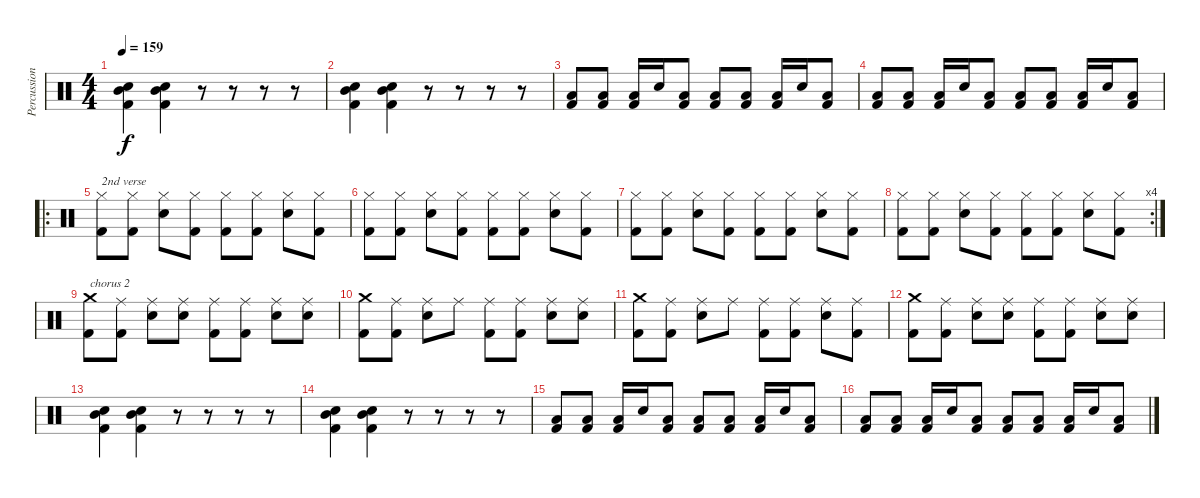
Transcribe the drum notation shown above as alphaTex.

\track ("Percussion" "Percussion") {instrument percussion}
\staff {score}
\articulation defaults
\ts (4 4)
\tempo 159
\clef neutral
\ks c
("Mid Tom (hit)" "Kick (hit) 2" "Electric Snare (hit)").4{dy f} ("Mid Tom (hit)" "Kick (hit) 2" "Electric Snare (hit)").4 r.8 r.8 r.8 r.8 |
("Mid Tom (hit)" "Kick (hit) 2" "Electric Snare (hit)").4 ("Mid Tom (hit)" "Kick (hit) 2" "Electric Snare (hit)").4 r.8 r.8 r.8 r.8 |
("Kick (hit) 2" "Low Tom (hit)").8 ("Kick (hit) 2" "Low Tom (hit)").8 ("Kick (hit) 2" "Low Tom (hit)").16 "Electric Snare (hit)".16 ("Kick (hit) 2" "Low Tom (hit)").8 ("Kick (hit) 2" "Low Tom (hit)").8 ("Kick (hit) 2" "Low Tom (hit)").8 ("Kick (hit) 2" "Low Tom (hit)").16 "Electric Snare (hit)".16 ("Kick (hit) 2" "Low Tom (hit)").8 |
("Kick (hit) 2" "Low Tom (hit)").8 ("Kick (hit) 2" "Low Tom (hit)").8 ("Kick (hit) 2" "Low Tom (hit)").16 "Electric Snare (hit)".16 ("Kick (hit) 2" "Low Tom (hit)").8 ("Kick (hit) 2" "Low Tom (hit)").8 ("Kick (hit) 2" "Low Tom (hit)").8 ("Kick (hit) 2" "Low Tom (hit)").16 "Electric Snare (hit)".16 ("Kick (hit) 2" "Low Tom (hit)").8 |
\ro
("Kick (hit) 2" "Hi-Hat (closed)").8{txt "2nd verse"} ("Kick (hit) 2" "Hi-Hat (closed)").8 ("Electric Snare (hit)" "Hi-Hat (closed)").8 ("Kick (hit) 2" "Hi-Hat (closed)").8 ("Kick (hit) 2" "Hi-Hat (closed)").8 ("Kick (hit) 2" "Hi-Hat (closed)").8 ("Electric Snare (hit)" "Hi-Hat (closed)").8 ("Kick (hit) 2" "Hi-Hat (closed)").8 |
("Kick (hit) 2" "Hi-Hat (closed)").8 ("Kick (hit) 2" "Hi-Hat (closed)").8 ("Electric Snare (hit)" "Hi-Hat (closed)").8 ("Kick (hit) 2" "Hi-Hat (closed)").8 ("Kick (hit) 2" "Hi-Hat (closed)").8 ("Kick (hit) 2" "Hi-Hat (closed)").8 ("Electric Snare (hit)" "Hi-Hat (closed)").8 ("Kick (hit) 2" "Hi-Hat (closed)").8 |
("Kick (hit) 2" "Hi-Hat (closed)").8 ("Kick (hit) 2" "Hi-Hat (closed)").8 ("Electric Snare (hit)" "Hi-Hat (closed)").8 ("Kick (hit) 2" "Hi-Hat (closed)").8 ("Kick (hit) 2" "Hi-Hat (closed)").8 ("Kick (hit) 2" "Hi-Hat (closed)").8 ("Electric Snare (hit)" "Hi-Hat (closed)").8 ("Kick (hit) 2" "Hi-Hat (closed)").8 |
\rc 4
("Kick (hit) 2" "Hi-Hat (closed)").8 ("Kick (hit) 2" "Hi-Hat (closed)").8 ("Electric Snare (hit)" "Hi-Hat (closed)").8 ("Kick (hit) 2" "Hi-Hat (closed)").8 ("Kick (hit) 2" "Hi-Hat (closed)").8 ("Kick (hit) 2" "Hi-Hat (closed)").8 ("Electric Snare (hit)" "Hi-Hat (closed)").8 ("Kick (hit) 2" "Hi-Hat (closed)").8 |
("Crash medium (hit)" "Kick (hit) 2").8{txt "chorus 2"} ("Kick (hit) 2" "Ride (middle)").8 ("Electric Snare (hit)" "Ride (middle)").8 ("Electric Snare (hit)" "Ride (middle)").8 ("Kick (hit) 2" "Ride (middle)").8 ("Kick (hit) 2" "Ride (middle)").8 ("Electric Snare (hit)" "Ride (middle)").8 ("Electric Snare (hit)" "Ride (middle)").8 |
("Crash medium (hit)" "Kick (hit) 2").8 ("Kick (hit) 2" "Ride (middle)").8 ("Electric Snare (hit)" "Ride (middle)").8 "Ride (middle)".8 ("Kick (hit) 2" "Ride (middle)").8 ("Kick (hit) 2" "Ride (middle)").8 ("Electric Snare (hit)" "Ride (middle)").8 ("Electric Snare (hit)" "Ride (middle)").8 |
("Crash medium (hit)" "Kick (hit) 2").8 ("Kick (hit) 2" "Ride (middle)").8 ("Electric Snare (hit)" "Ride (middle)").8 "Ride (middle)".8 ("Kick (hit) 2" "Ride (middle)").8 ("Kick (hit) 2" "Ride (middle)").8 ("Electric Snare (hit)" "Ride (middle)").8 ("Kick (hit) 2" "Ride (middle)").8 |
("Crash medium (hit)" "Kick (hit) 2").8 ("Kick (hit) 2" "Ride (middle)").8 ("Electric Snare (hit)" "Ride (middle)").8 ("Electric Snare (hit)" "Ride (middle)").8 ("Kick (hit) 2" "Ride (middle)").8 ("Kick (hit) 2" "Ride (middle)").8 ("Electric Snare (hit)" "Ride (middle)").8 ("Electric Snare (hit)" "Ride (middle)").8 |
("Mid Tom (hit)" "Kick (hit) 2" "Electric Snare (hit)").4 ("Mid Tom (hit)" "Kick (hit) 2" "Electric Snare (hit)").4 r.8 r.8 r.8 r.8 |
("Mid Tom (hit)" "Kick (hit) 2" "Electric Snare (hit)").4 ("Mid Tom (hit)" "Kick (hit) 2" "Electric Snare (hit)").4 r.8 r.8 r.8 r.8 |
("Kick (hit) 2" "Low Tom (hit)").8 ("Kick (hit) 2" "Low Tom (hit)").8 ("Kick (hit) 2" "Low Tom (hit)").16 "Electric Snare (hit)".16 ("Kick (hit) 2" "Low Tom (hit)").8 ("Kick (hit) 2" "Low Tom (hit)").8 ("Kick (hit) 2" "Low Tom (hit)").8 ("Kick (hit) 2" "Low Tom (hit)").16 "Electric Snare (hit)".16 ("Kick (hit) 2" "Low Tom (hit)").8 |
("Kick (hit) 2" "Low Tom (hit)").8 ("Kick (hit) 2" "Low Tom (hit)").8 ("Kick (hit) 2" "Low Tom (hit)").16 "Electric Snare (hit)".16 ("Kick (hit) 2" "Low Tom (hit)").8 ("Kick (hit) 2" "Low Tom (hit)").8 ("Kick (hit) 2" "Low Tom (hit)").8 ("Kick (hit) 2" "Low Tom (hit)").16 "Electric Snare (hit)".16 ("Kick (hit) 2" "Low Tom (hit)").8
